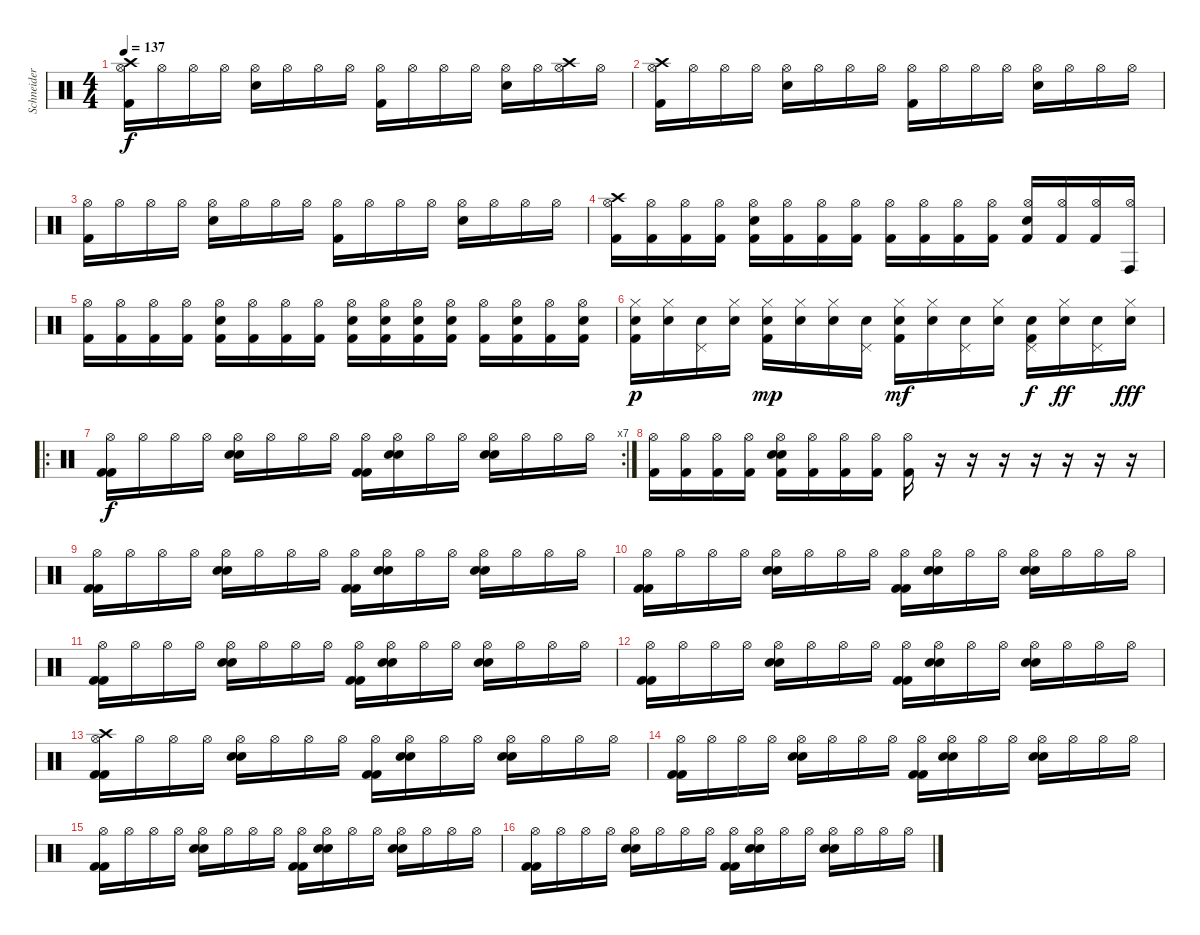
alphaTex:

\track ("Schneider" "Schneider") {instrument percussion}
\staff {score}
\articulation defaults
\ts (4 4)
\tempo 137
\clef neutral
\ks c
("Crash high (hit)" "Hi-Hat (open)" "Kick (hit) 2").16{dy f} "Hi-Hat (open)".16 "Hi-Hat (open)".16 "Hi-Hat (open)".16 ("Hi-Hat (open)" "Electric Snare (hit)").16 "Hi-Hat (open)".16 "Hi-Hat (open)".16 "Hi-Hat (open)".16 ("Hi-Hat (open)" "Kick (hit) 2").16 "Hi-Hat (open)".16 "Hi-Hat (open)".16 "Hi-Hat (open)".16 ("Hi-Hat (open)" "Electric Snare (hit)").16 "Hi-Hat (open)".16 ("Crash high (hit)" "Hi-Hat (open)").16 "Hi-Hat (open)".16 |
("Crash high (hit)" "Hi-Hat (open)" "Kick (hit) 2").16 "Hi-Hat (open)".16 "Hi-Hat (open)".16 "Hi-Hat (open)".16 ("Hi-Hat (open)" "Electric Snare (hit)").16 "Hi-Hat (open)".16 "Hi-Hat (open)".16 "Hi-Hat (open)".16 ("Hi-Hat (open)" "Kick (hit) 2").16 "Hi-Hat (open)".16 "Hi-Hat (open)".16 "Hi-Hat (open)".16 ("Hi-Hat (open)" "Electric Snare (hit)").16 "Hi-Hat (open)".16 "Hi-Hat (open)".16 "Hi-Hat (open)".16 |
("Hi-Hat (open)" "Kick (hit) 2").16 "Hi-Hat (open)".16 "Hi-Hat (open)".16 "Hi-Hat (open)".16 ("Hi-Hat (open)" "Electric Snare (hit)").16 "Hi-Hat (open)".16 "Hi-Hat (open)".16 "Hi-Hat (open)".16 ("Hi-Hat (open)" "Kick (hit) 2").16 "Hi-Hat (open)".16 "Hi-Hat (open)".16 "Hi-Hat (open)".16 ("Hi-Hat (open)" "Electric Snare (hit)").16 "Hi-Hat (open)".16 "Hi-Hat (open)".16 "Hi-Hat (open)".16 |
("Crash high (hit)" "Hi-Hat (open)" "Kick (hit) 2").16 ("Hi-Hat (open)" "Kick (hit) 2").16 ("Hi-Hat (open)" "Kick (hit) 2").16 ("Hi-Hat (open)" "Kick (hit) 2").16 ("Hi-Hat (open)" "Electric Snare (hit)" "Kick (hit) 2").16 ("Hi-Hat (open)" "Kick (hit) 2").16 ("Hi-Hat (open)" "Kick (hit) 2").16 ("Hi-Hat (open)" "Kick (hit) 2").16 ("Hi-Hat (open)" "Kick (hit) 2").16 ("Hi-Hat (open)" "Kick (hit) 2").16 ("Hi-Hat (open)" "Kick (hit) 2").16 ("Hi-Hat (open)" "Kick (hit) 2").16 ("Hi-Hat (open)" "Electric Snare (hit)" "Kick (hit) 2").16 ("Hi-Hat (open)" "Kick (hit) 2").16 ("Hi-Hat (open)" "Kick (hit) 2").16 ("Hi-Hat (open)" "Conga high (hit)").16 |
("Hi-Hat (open)" "Kick (hit) 2").16 ("Hi-Hat (open)" "Kick (hit) 2").16 ("Hi-Hat (open)" "Kick (hit) 2").16 ("Hi-Hat (open)" "Kick (hit) 2").16 ("Hi-Hat (open)" "Electric Snare (hit)" "Kick (hit) 2").16 ("Hi-Hat (open)" "Kick (hit) 2").16 ("Hi-Hat (open)" "Kick (hit) 2").16 ("Hi-Hat (open)" "Kick (hit) 2").16 ("Hi-Hat (open)" "Electric Snare (hit)" "Kick (hit) 2").16 ("Hi-Hat (open)" "Electric Snare (hit)" "Kick (hit) 2").16 ("Hi-Hat (open)" "Electric Snare (hit)" "Kick (hit) 2").16 ("Hi-Hat (open)" "Electric Snare (hit)" "Kick (hit) 2").16 ("Hi-Hat (open)" "Kick (hit) 2").16 ("Hi-Hat (open)" "Electric Snare (hit)" "Kick (hit) 2").16 ("Hi-Hat (open)" "Kick (hit) 2").16 ("Hi-Hat (open)" "Electric Snare (hit)" "Kick (hit) 2").16 |
("Electric Snare (hit)" "Hi-Hat (closed)" "Kick (hit) 2").16{dy p} ("Electric Snare (hit)" "Hi-Hat (closed)").16 ("Electric Snare (hit)" "Pedal Hi-Hat (hit)").16 ("Electric Snare (hit)" "Hi-Hat (closed)").16 ("Electric Snare (hit)" "Hi-Hat (closed)" "Kick (hit) 2").16{dy mp} ("Electric Snare (hit)" "Hi-Hat (closed)").16 ("Electric Snare (hit)" "Hi-Hat (closed)").16 ("Electric Snare (hit)" "Pedal Hi-Hat (hit)").16 ("Electric Snare (hit)" "Hi-Hat (closed)" "Kick (hit) 2").16{dy mf} ("Electric Snare (hit)" "Hi-Hat (closed)").16 ("Electric Snare (hit)" "Pedal Hi-Hat (hit)").16 ("Electric Snare (hit)" "Hi-Hat (closed)").16 ("Electric Snare (hit)" "Pedal Hi-Hat (hit)" "Kick (hit) 2").16{dy f} ("Electric Snare (hit)" "Hi-Hat (closed)").16{dy ff} ("Electric Snare (hit)" "Pedal Hi-Hat (hit)").16 ("Electric Snare (hit)" "Hi-Hat (closed)").16{dy fff} |
\ro
\rc 7
("Hi-Hat (open)" "Kick (hit) 2" "Kick (hit) 2").16{dy f} "Hi-Hat (open)".16 "Hi-Hat (open)".16 "Hi-Hat (open)".16 ("Hi-Hat (open)" "Electric Snare (hit)" "Electric Snare (hit)").16 "Hi-Hat (open)".16 "Hi-Hat (open)".16 "Hi-Hat (open)".16 ("Hi-Hat (open)" "Kick (hit) 2" "Kick (hit) 2").16 ("Hi-Hat (open)" "Electric Snare (hit)" "Electric Snare (hit)").16 "Hi-Hat (open)".16 "Hi-Hat (open)".16 ("Hi-Hat (open)" "Electric Snare (hit)" "Electric Snare (hit)").16 "Hi-Hat (open)".16 "Hi-Hat (open)".16 "Hi-Hat (open)".16 |
("Hi-Hat (open)" "Kick (hit) 2").16 ("Hi-Hat (open)" "Kick (hit) 2").16 ("Hi-Hat (open)" "Kick (hit) 2").16 ("Hi-Hat (open)" "Kick (hit) 2").16 ("Hi-Hat (open)" "Electric Snare (hit)" "Electric Snare (hit)" "Kick (hit) 2").16 ("Hi-Hat (open)" "Kick (hit) 2").16 ("Hi-Hat (open)" "Kick (hit) 2").16 ("Hi-Hat (open)" "Kick (hit) 2").16 ("Hi-Hat (open)" "Kick (hit) 2").16 r.16 r.16 r.16 r.16 r.16 r.16 r.16 |
("Hi-Hat (open)" "Kick (hit) 2" "Kick (hit) 2").16 "Hi-Hat (open)".16 "Hi-Hat (open)".16 "Hi-Hat (open)".16 ("Hi-Hat (open)" "Electric Snare (hit)" "Electric Snare (hit)").16 "Hi-Hat (open)".16 "Hi-Hat (open)".16 "Hi-Hat (open)".16 ("Hi-Hat (open)" "Kick (hit) 2" "Kick (hit) 2").16 ("Hi-Hat (open)" "Electric Snare (hit)" "Electric Snare (hit)").16 "Hi-Hat (open)".16 "Hi-Hat (open)".16 ("Hi-Hat (open)" "Electric Snare (hit)" "Electric Snare (hit)").16 "Hi-Hat (open)".16 "Hi-Hat (open)".16 "Hi-Hat (open)".16 |
("Hi-Hat (open)" "Kick (hit) 2" "Kick (hit) 2").16 "Hi-Hat (open)".16 "Hi-Hat (open)".16 "Hi-Hat (open)".16 ("Hi-Hat (open)" "Electric Snare (hit)" "Electric Snare (hit)").16 "Hi-Hat (open)".16 "Hi-Hat (open)".16 "Hi-Hat (open)".16 ("Hi-Hat (open)" "Kick (hit) 2" "Kick (hit) 2").16 ("Hi-Hat (open)" "Electric Snare (hit)" "Electric Snare (hit)").16 "Hi-Hat (open)".16 "Hi-Hat (open)".16 ("Hi-Hat (open)" "Electric Snare (hit)" "Electric Snare (hit)").16 "Hi-Hat (open)".16 "Hi-Hat (open)".16 "Hi-Hat (open)".16 |
("Hi-Hat (open)" "Kick (hit) 2" "Kick (hit) 2").16 "Hi-Hat (open)".16 "Hi-Hat (open)".16 "Hi-Hat (open)".16 ("Hi-Hat (open)" "Electric Snare (hit)" "Electric Snare (hit)").16 "Hi-Hat (open)".16 "Hi-Hat (open)".16 "Hi-Hat (open)".16 ("Hi-Hat (open)" "Kick (hit) 2" "Kick (hit) 2").16 ("Hi-Hat (open)" "Electric Snare (hit)" "Electric Snare (hit)").16 "Hi-Hat (open)".16 "Hi-Hat (open)".16 ("Hi-Hat (open)" "Electric Snare (hit)" "Electric Snare (hit)").16 "Hi-Hat (open)".16 "Hi-Hat (open)".16 "Hi-Hat (open)".16 |
("Hi-Hat (open)" "Kick (hit) 2" "Kick (hit) 2").16 "Hi-Hat (open)".16 "Hi-Hat (open)".16 "Hi-Hat (open)".16 ("Hi-Hat (open)" "Electric Snare (hit)" "Electric Snare (hit)").16 "Hi-Hat (open)".16 "Hi-Hat (open)".16 "Hi-Hat (open)".16 ("Hi-Hat (open)" "Kick (hit) 2" "Kick (hit) 2").16 ("Hi-Hat (open)" "Electric Snare (hit)" "Electric Snare (hit)").16 "Hi-Hat (open)".16 "Hi-Hat (open)".16 ("Hi-Hat (open)" "Electric Snare (hit)" "Electric Snare (hit)").16 "Hi-Hat (open)".16 "Hi-Hat (open)".16 "Hi-Hat (open)".16 |
("Crash high (hit)" "Hi-Hat (open)" "Kick (hit) 2" "Kick (hit) 2").16 "Hi-Hat (open)".16 "Hi-Hat (open)".16 "Hi-Hat (open)".16 ("Hi-Hat (open)" "Electric Snare (hit)" "Electric Snare (hit)").16 "Hi-Hat (open)".16 "Hi-Hat (open)".16 "Hi-Hat (open)".16 ("Hi-Hat (open)" "Kick (hit) 2" "Kick (hit) 2").16 ("Hi-Hat (open)" "Electric Snare (hit)" "Electric Snare (hit)").16 "Hi-Hat (open)".16 "Hi-Hat (open)".16 ("Hi-Hat (open)" "Electric Snare (hit)" "Electric Snare (hit)").16 "Hi-Hat (open)".16 "Hi-Hat (open)".16 "Hi-Hat (open)".16 |
("Hi-Hat (open)" "Kick (hit) 2" "Kick (hit) 2").16 "Hi-Hat (open)".16 "Hi-Hat (open)".16 "Hi-Hat (open)".16 ("Hi-Hat (open)" "Electric Snare (hit)" "Electric Snare (hit)").16 "Hi-Hat (open)".16 "Hi-Hat (open)".16 "Hi-Hat (open)".16 ("Hi-Hat (open)" "Kick (hit) 2" "Kick (hit) 2").16 ("Hi-Hat (open)" "Electric Snare (hit)" "Electric Snare (hit)").16 "Hi-Hat (open)".16 "Hi-Hat (open)".16 ("Hi-Hat (open)" "Electric Snare (hit)" "Electric Snare (hit)").16 "Hi-Hat (open)".16 "Hi-Hat (open)".16 "Hi-Hat (open)".16 |
("Hi-Hat (open)" "Kick (hit) 2" "Kick (hit) 2").16 "Hi-Hat (open)".16 "Hi-Hat (open)".16 "Hi-Hat (open)".16 ("Hi-Hat (open)" "Electric Snare (hit)" "Electric Snare (hit)").16 "Hi-Hat (open)".16 "Hi-Hat (open)".16 "Hi-Hat (open)".16 ("Hi-Hat (open)" "Kick (hit) 2" "Kick (hit) 2").16 ("Hi-Hat (open)" "Electric Snare (hit)" "Electric Snare (hit)").16 "Hi-Hat (open)".16 "Hi-Hat (open)".16 ("Hi-Hat (open)" "Electric Snare (hit)" "Electric Snare (hit)").16 "Hi-Hat (open)".16 "Hi-Hat (open)".16 "Hi-Hat (open)".16 |
("Hi-Hat (open)" "Kick (hit) 2" "Kick (hit) 2").16 "Hi-Hat (open)".16 "Hi-Hat (open)".16 "Hi-Hat (open)".16 ("Hi-Hat (open)" "Electric Snare (hit)" "Electric Snare (hit)").16 "Hi-Hat (open)".16 "Hi-Hat (open)".16 "Hi-Hat (open)".16 ("Hi-Hat (open)" "Kick (hit) 2" "Kick (hit) 2").16 ("Hi-Hat (open)" "Electric Snare (hit)" "Electric Snare (hit)").16 "Hi-Hat (open)".16 "Hi-Hat (open)".16 ("Hi-Hat (open)" "Electric Snare (hit)" "Electric Snare (hit)").16 "Hi-Hat (open)".16 "Hi-Hat (open)".16 "Hi-Hat (open)".16
